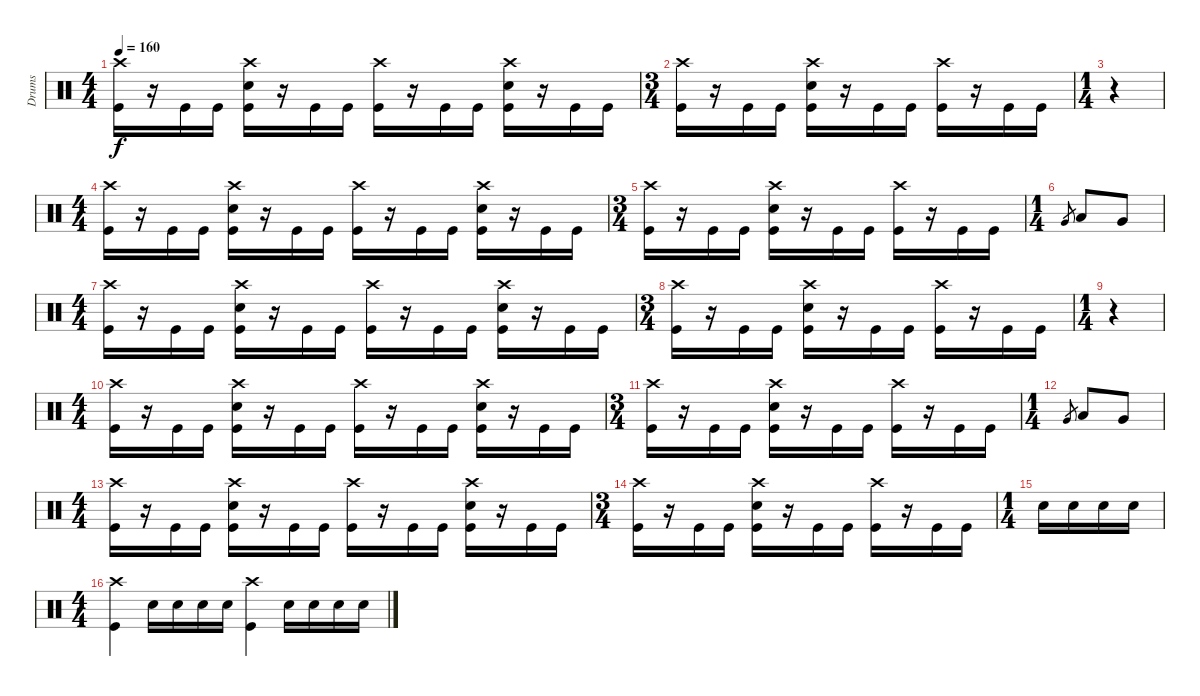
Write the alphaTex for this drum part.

\track ("Drums" "Drums") {instrument percussion}
\staff {score}
\articulation defaults
\ts (4 4)
\tempo 160
\clef neutral
\ks c
("Crash high (hit)" "Kick (hit)").16{dy f} r.16 "Kick (hit)".16 "Kick (hit)".16 ("Crash high (hit)" "Electric Snare (hit)" "Kick (hit)").16 r.16 "Kick (hit)".16 "Kick (hit)".16 ("Crash high (hit)" "Kick (hit)").16 r.16 "Kick (hit)".16 "Kick (hit)".16 ("Crash high (hit)" "Electric Snare (hit)" "Kick (hit)").16 r.16 "Kick (hit)".16 "Kick (hit)".16 |
\ts (3 4)
("Crash high (hit)" "Kick (hit)").16 r.16 "Kick (hit)".16 "Kick (hit)".16 ("Crash high (hit)" "Electric Snare (hit)" "Kick (hit)").16 r.16 "Kick (hit)".16 "Kick (hit)".16 ("Crash high (hit)" "Kick (hit)").16 r.16 "Kick (hit)".16 "Kick (hit)".16 |
\ts (1 4)
r.4 |
\ts (4 4)
("Crash high (hit)" "Kick (hit)").16 r.16 "Kick (hit)".16 "Kick (hit)".16 ("Crash high (hit)" "Electric Snare (hit)" "Kick (hit)").16 r.16 "Kick (hit)".16 "Kick (hit)".16 ("Crash high (hit)" "Kick (hit)").16 r.16 "Kick (hit)".16 "Kick (hit)".16 ("Crash high (hit)" "Electric Snare (hit)" "Kick (hit)").16 r.16 "Kick (hit)".16 "Kick (hit)".16 |
\ts (3 4)
("Crash high (hit)" "Kick (hit)").16 r.16 "Kick (hit)".16 "Kick (hit)".16 ("Crash high (hit)" "Electric Snare (hit)" "Kick (hit)").16 r.16 "Kick (hit)".16 "Kick (hit)".16 ("Crash high (hit)" "Kick (hit)").16 r.16 "Kick (hit)".16 "Kick (hit)".16 |
\ts (1 4)
"Very Low Tom (hit)".8{gr} "Low Tom (hit)".8 "Very Low Tom (hit)".8 |
\ts (4 4)
("Crash high (hit)" "Kick (hit)").16 r.16 "Kick (hit)".16 "Kick (hit)".16 ("Crash high (hit)" "Electric Snare (hit)" "Kick (hit)").16 r.16 "Kick (hit)".16 "Kick (hit)".16 ("Crash high (hit)" "Kick (hit)").16 r.16 "Kick (hit)".16 "Kick (hit)".16 ("Crash high (hit)" "Electric Snare (hit)" "Kick (hit)").16 r.16 "Kick (hit)".16 "Kick (hit)".16 |
\ts (3 4)
("Crash high (hit)" "Kick (hit)").16 r.16 "Kick (hit)".16 "Kick (hit)".16 ("Crash high (hit)" "Electric Snare (hit)" "Kick (hit)").16 r.16 "Kick (hit)".16 "Kick (hit)".16 ("Crash high (hit)" "Kick (hit)").16 r.16 "Kick (hit)".16 "Kick (hit)".16 |
\ts (1 4)
r.4 |
\ts (4 4)
("Crash high (hit)" "Kick (hit)").16 r.16 "Kick (hit)".16 "Kick (hit)".16 ("Crash high (hit)" "Electric Snare (hit)" "Kick (hit)").16 r.16 "Kick (hit)".16 "Kick (hit)".16 ("Crash high (hit)" "Kick (hit)").16 r.16 "Kick (hit)".16 "Kick (hit)".16 ("Crash high (hit)" "Electric Snare (hit)" "Kick (hit)").16 r.16 "Kick (hit)".16 "Kick (hit)".16 |
\ts (3 4)
("Crash high (hit)" "Kick (hit)").16 r.16 "Kick (hit)".16 "Kick (hit)".16 ("Crash high (hit)" "Electric Snare (hit)" "Kick (hit)").16 r.16 "Kick (hit)".16 "Kick (hit)".16 ("Crash high (hit)" "Kick (hit)").16 r.16 "Kick (hit)".16 "Kick (hit)".16 |
\ts (1 4)
"Very Low Tom (hit)".8{gr} "Low Tom (hit)".8 "Very Low Tom (hit)".8 |
\ts (4 4)
("Crash high (hit)" "Kick (hit)").16 r.16 "Kick (hit)".16 "Kick (hit)".16 ("Crash high (hit)" "Electric Snare (hit)" "Kick (hit)").16 r.16 "Kick (hit)".16 "Kick (hit)".16 ("Crash high (hit)" "Kick (hit)").16 r.16 "Kick (hit)".16 "Kick (hit)".16 ("Crash high (hit)" "Electric Snare (hit)" "Kick (hit)").16 r.16 "Kick (hit)".16 "Kick (hit)".16 |
\ts (3 4)
("Crash high (hit)" "Kick (hit)").16 r.16 "Kick (hit)".16 "Kick (hit)".16 ("Crash high (hit)" "Electric Snare (hit)" "Kick (hit)").16 r.16 "Kick (hit)".16 "Kick (hit)".16 ("Crash high (hit)" "Kick (hit)").16 r.16 "Kick (hit)".16 "Kick (hit)".16 |
\ts (1 4)
"Electric Snare (hit)".16 "Electric Snare (hit)".16 "Electric Snare (hit)".16 "Electric Snare (hit)".16 |
\ts (4 4)
("Crash high (hit)" "Kick (hit)").4 "Electric Snare (hit)".16 "Electric Snare (hit)".16 "Electric Snare (hit)".16 "Electric Snare (hit)".16 ("Crash high (hit)" "Kick (hit)").4 "Electric Snare (hit)".16 "Electric Snare (hit)".16 "Electric Snare (hit)".16 "Electric Snare (hit)".16
